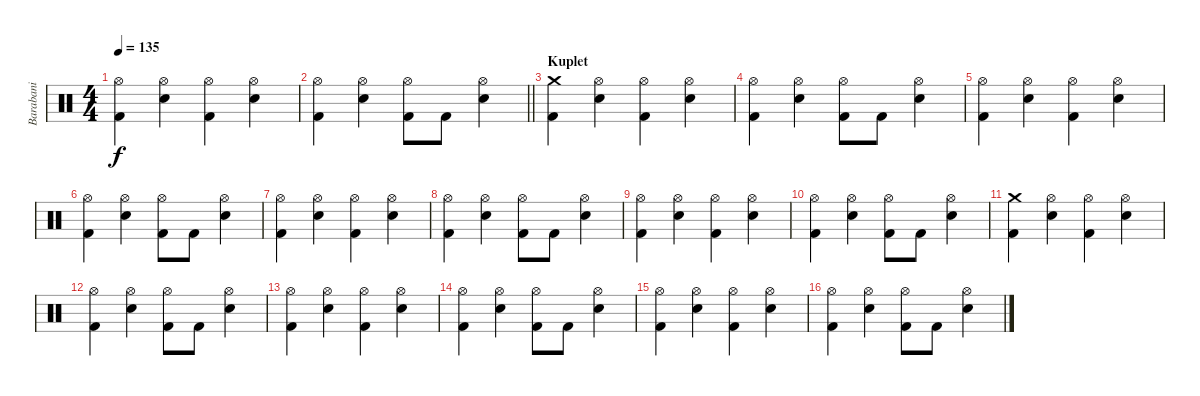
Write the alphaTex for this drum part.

\track ("Barabani" "Barabani") {instrument percussion}
\staff {score}
\articulation defaults
\ts (4 4)
\tempo 135
\clef neutral
\ks c
("Hi-Hat (open)" "Kick (hit) 2").4{dy f} ("Hi-Hat (open)" "Snare (hit) 2").4 ("Hi-Hat (open)" "Kick (hit) 2").4 ("Hi-Hat (open)" "Snare (hit) 2").4 |
\barLineRight lightlight
("Hi-Hat (open)" "Kick (hit) 2").4 ("Hi-Hat (open)" "Snare (hit) 2").4 ("Hi-Hat (open)" "Kick (hit) 2").8 "Kick (hit) 2".8 ("Hi-Hat (open)" "Snare (hit) 2").4 |
\section ("" "Kuplet")
("Crash medium (hit)" "Kick (hit) 2").4 ("Hi-Hat (open)" "Snare (hit) 2").4 ("Hi-Hat (open)" "Kick (hit) 2").4 ("Hi-Hat (open)" "Snare (hit) 2").4 |
("Hi-Hat (open)" "Kick (hit) 2").4 ("Hi-Hat (open)" "Snare (hit) 2").4 ("Hi-Hat (open)" "Kick (hit) 2").8 "Kick (hit) 2".8 ("Hi-Hat (open)" "Snare (hit) 2").4 |
("Hi-Hat (open)" "Kick (hit) 2").4 ("Hi-Hat (open)" "Snare (hit) 2").4 ("Hi-Hat (open)" "Kick (hit) 2").4 ("Hi-Hat (open)" "Snare (hit) 2").4 |
("Hi-Hat (open)" "Kick (hit) 2").4 ("Hi-Hat (open)" "Snare (hit) 2").4 ("Hi-Hat (open)" "Kick (hit) 2").8 "Kick (hit) 2".8 ("Hi-Hat (open)" "Snare (hit) 2").4 |
("Hi-Hat (open)" "Kick (hit) 2").4 ("Hi-Hat (open)" "Snare (hit) 2").4 ("Hi-Hat (open)" "Kick (hit) 2").4 ("Hi-Hat (open)" "Snare (hit) 2").4 |
("Hi-Hat (open)" "Kick (hit) 2").4 ("Hi-Hat (open)" "Snare (hit) 2").4 ("Hi-Hat (open)" "Kick (hit) 2").8 "Kick (hit) 2".8 ("Hi-Hat (open)" "Snare (hit) 2").4 |
("Hi-Hat (open)" "Kick (hit) 2").4 ("Hi-Hat (open)" "Snare (hit) 2").4 ("Hi-Hat (open)" "Kick (hit) 2").4 ("Hi-Hat (open)" "Snare (hit) 2").4 |
("Hi-Hat (open)" "Kick (hit) 2").4 ("Hi-Hat (open)" "Snare (hit) 2").4 ("Hi-Hat (open)" "Kick (hit) 2").8 "Kick (hit) 2".8 ("Hi-Hat (open)" "Snare (hit) 2").4 |
("Crash medium (hit)" "Kick (hit) 2").4 ("Hi-Hat (open)" "Snare (hit) 2").4 ("Hi-Hat (open)" "Kick (hit) 2").4 ("Hi-Hat (open)" "Snare (hit) 2").4 |
("Hi-Hat (open)" "Kick (hit) 2").4 ("Hi-Hat (open)" "Snare (hit) 2").4 ("Hi-Hat (open)" "Kick (hit) 2").8 "Kick (hit) 2".8 ("Hi-Hat (open)" "Snare (hit) 2").4 |
("Hi-Hat (open)" "Kick (hit) 2").4 ("Hi-Hat (open)" "Snare (hit) 2").4 ("Hi-Hat (open)" "Kick (hit) 2").4 ("Hi-Hat (open)" "Snare (hit) 2").4 |
("Hi-Hat (open)" "Kick (hit) 2").4 ("Hi-Hat (open)" "Snare (hit) 2").4 ("Hi-Hat (open)" "Kick (hit) 2").8 "Kick (hit) 2".8 ("Hi-Hat (open)" "Snare (hit) 2").4 |
("Hi-Hat (open)" "Kick (hit) 2").4 ("Hi-Hat (open)" "Snare (hit) 2").4 ("Hi-Hat (open)" "Kick (hit) 2").4 ("Hi-Hat (open)" "Snare (hit) 2").4 |
("Hi-Hat (open)" "Kick (hit) 2").4 ("Hi-Hat (open)" "Snare (hit) 2").4 ("Hi-Hat (open)" "Kick (hit) 2").8 "Kick (hit) 2".8 ("Hi-Hat (open)" "Snare (hit) 2").4
